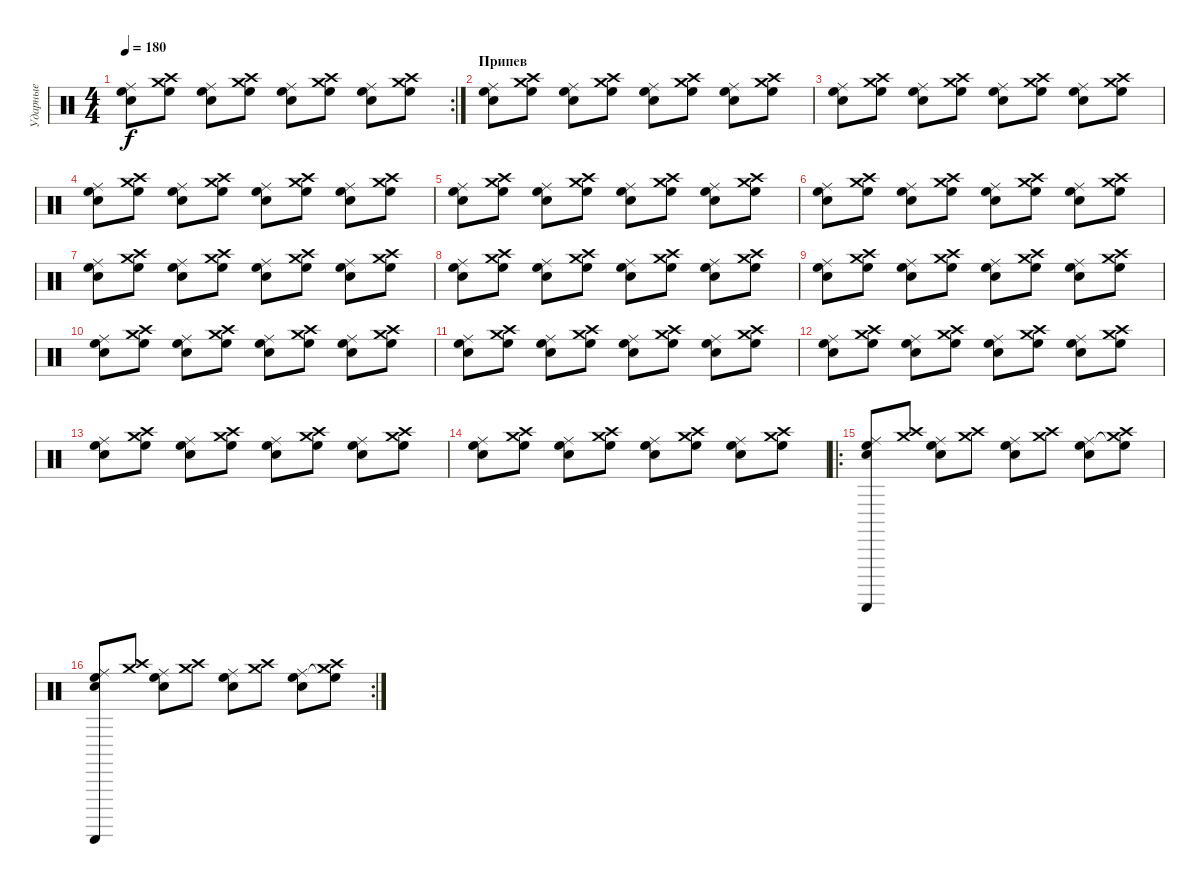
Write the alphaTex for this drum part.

\track ("Ударные" "Ударные") {instrument percussion}
\staff {score}
\articulation defaults
\rc 2
\ts (4 4)
\tempo 180
\clef neutral
\ks c
("High Floor Tom (hit)" "Ride (middle)" "Snare (hit) 2").8{dy f} ("High Floor Tom (hit)" "Crash high (hit)" "Crash medium (hit)").8 ("High Floor Tom (hit)" "Ride (middle)" "Snare (hit) 2").8 ("High Floor Tom (hit)" "Crash high (hit)" "Crash medium (hit)").8 ("High Floor Tom (hit)" "Ride (middle)" "Snare (hit) 2").8 ("High Floor Tom (hit)" "Crash high (hit)" "Crash medium (hit)").8 ("High Floor Tom (hit)" "Ride (middle)" "Snare (hit) 2").8 ("High Floor Tom (hit)" "Crash high (hit)" "Crash medium (hit)").8 |
\section ("" "Припев")
("High Floor Tom (hit)" "Ride (middle)" "Snare (hit) 2").8 ("High Floor Tom (hit)" "Crash high (hit)" "Crash medium (hit)").8 ("High Floor Tom (hit)" "Ride (middle)" "Snare (hit) 2").8 ("High Floor Tom (hit)" "Crash high (hit)" "Crash medium (hit)").8 ("High Floor Tom (hit)" "Ride (middle)" "Snare (hit) 2").8 ("High Floor Tom (hit)" "Crash high (hit)" "Crash medium (hit)").8 ("High Floor Tom (hit)" "Ride (middle)" "Snare (hit) 2").8 ("High Floor Tom (hit)" "Crash high (hit)" "Crash medium (hit)").8 |
("High Floor Tom (hit)" "Ride (middle)" "Snare (hit) 2").8 ("High Floor Tom (hit)" "Crash high (hit)" "Crash medium (hit)").8 ("High Floor Tom (hit)" "Ride (middle)" "Snare (hit) 2").8 ("High Floor Tom (hit)" "Crash high (hit)" "Crash medium (hit)").8 ("High Floor Tom (hit)" "Ride (middle)" "Snare (hit) 2").8 ("High Floor Tom (hit)" "Crash high (hit)" "Crash medium (hit)").8 ("High Floor Tom (hit)" "Ride (middle)" "Snare (hit) 2").8 ("High Floor Tom (hit)" "Crash high (hit)" "Crash medium (hit)").8 |
("High Floor Tom (hit)" "Ride (middle)" "Snare (hit) 2").8 ("High Floor Tom (hit)" "Crash high (hit)" "Crash medium (hit)").8 ("High Floor Tom (hit)" "Ride (middle)" "Snare (hit) 2").8 ("High Floor Tom (hit)" "Crash high (hit)" "Crash medium (hit)").8 ("High Floor Tom (hit)" "Ride (middle)" "Snare (hit) 2").8 ("High Floor Tom (hit)" "Crash high (hit)" "Crash medium (hit)").8 ("High Floor Tom (hit)" "Ride (middle)" "Snare (hit) 2").8 ("High Floor Tom (hit)" "Crash high (hit)" "Crash medium (hit)").8 |
("High Floor Tom (hit)" "Ride (middle)" "Snare (hit) 2").8 ("High Floor Tom (hit)" "Crash high (hit)" "Crash medium (hit)").8 ("High Floor Tom (hit)" "Ride (middle)" "Snare (hit) 2").8 ("High Floor Tom (hit)" "Crash high (hit)" "Crash medium (hit)").8 ("High Floor Tom (hit)" "Ride (middle)" "Snare (hit) 2").8 ("High Floor Tom (hit)" "Crash high (hit)" "Crash medium (hit)").8 ("High Floor Tom (hit)" "Ride (middle)" "Snare (hit) 2").8 ("High Floor Tom (hit)" "Crash high (hit)" "Crash medium (hit)").8 |
("High Floor Tom (hit)" "Ride (middle)" "Snare (hit) 2").8 ("High Floor Tom (hit)" "Crash high (hit)" "Crash medium (hit)").8 ("High Floor Tom (hit)" "Ride (middle)" "Snare (hit) 2").8 ("High Floor Tom (hit)" "Crash high (hit)" "Crash medium (hit)").8 ("High Floor Tom (hit)" "Ride (middle)" "Snare (hit) 2").8 ("High Floor Tom (hit)" "Crash high (hit)" "Crash medium (hit)").8 ("High Floor Tom (hit)" "Ride (middle)" "Snare (hit) 2").8 ("High Floor Tom (hit)" "Crash high (hit)" "Crash medium (hit)").8 |
("High Floor Tom (hit)" "Ride (middle)" "Snare (hit) 2").8 ("High Floor Tom (hit)" "Crash high (hit)" "Crash medium (hit)").8 ("High Floor Tom (hit)" "Ride (middle)" "Snare (hit) 2").8 ("High Floor Tom (hit)" "Crash high (hit)" "Crash medium (hit)").8 ("High Floor Tom (hit)" "Ride (middle)" "Snare (hit) 2").8 ("High Floor Tom (hit)" "Crash high (hit)" "Crash medium (hit)").8 ("High Floor Tom (hit)" "Ride (middle)" "Snare (hit) 2").8 ("High Floor Tom (hit)" "Crash high (hit)" "Crash medium (hit)").8 |
("High Floor Tom (hit)" "Ride (middle)" "Snare (hit) 2").8 ("High Floor Tom (hit)" "Crash high (hit)" "Crash medium (hit)").8 ("High Floor Tom (hit)" "Ride (middle)" "Snare (hit) 2").8 ("High Floor Tom (hit)" "Crash high (hit)" "Crash medium (hit)").8 ("High Floor Tom (hit)" "Ride (middle)" "Snare (hit) 2").8 ("High Floor Tom (hit)" "Crash high (hit)" "Crash medium (hit)").8 ("High Floor Tom (hit)" "Ride (middle)" "Snare (hit) 2").8 ("High Floor Tom (hit)" "Crash high (hit)" "Crash medium (hit)").8 |
("High Floor Tom (hit)" "Ride (middle)" "Snare (hit) 2").8 ("High Floor Tom (hit)" "Crash high (hit)" "Crash medium (hit)").8 ("High Floor Tom (hit)" "Ride (middle)" "Snare (hit) 2").8 ("High Floor Tom (hit)" "Crash high (hit)" "Crash medium (hit)").8 ("High Floor Tom (hit)" "Ride (middle)" "Snare (hit) 2").8 ("High Floor Tom (hit)" "Crash high (hit)" "Crash medium (hit)").8 ("High Floor Tom (hit)" "Ride (middle)" "Snare (hit) 2").8 ("High Floor Tom (hit)" "Crash high (hit)" "Crash medium (hit)").8 |
("High Floor Tom (hit)" "Ride (middle)" "Snare (hit) 2").8 ("High Floor Tom (hit)" "Crash high (hit)" "Crash medium (hit)").8 ("High Floor Tom (hit)" "Ride (middle)" "Snare (hit) 2").8 ("High Floor Tom (hit)" "Crash high (hit)" "Crash medium (hit)").8 ("High Floor Tom (hit)" "Ride (middle)" "Snare (hit) 2").8 ("High Floor Tom (hit)" "Crash high (hit)" "Crash medium (hit)").8 ("High Floor Tom (hit)" "Ride (middle)" "Snare (hit) 2").8 ("High Floor Tom (hit)" "Crash high (hit)" "Crash medium (hit)").8 |
("High Floor Tom (hit)" "Ride (middle)" "Snare (hit) 2").8 ("High Floor Tom (hit)" "Crash high (hit)" "Crash medium (hit)").8 ("High Floor Tom (hit)" "Ride (middle)" "Snare (hit) 2").8 ("High Floor Tom (hit)" "Crash high (hit)" "Crash medium (hit)").8 ("High Floor Tom (hit)" "Ride (middle)" "Snare (hit) 2").8 ("High Floor Tom (hit)" "Crash high (hit)" "Crash medium (hit)").8 ("High Floor Tom (hit)" "Ride (middle)" "Snare (hit) 2").8 ("High Floor Tom (hit)" "Crash high (hit)" "Crash medium (hit)").8 |
("High Floor Tom (hit)" "Ride (middle)" "Snare (hit) 2").8 ("High Floor Tom (hit)" "Crash high (hit)" "Crash medium (hit)").8 ("High Floor Tom (hit)" "Ride (middle)" "Snare (hit) 2").8 ("High Floor Tom (hit)" "Crash high (hit)" "Crash medium (hit)").8 ("High Floor Tom (hit)" "Ride (middle)" "Snare (hit) 2").8 ("High Floor Tom (hit)" "Crash high (hit)" "Crash medium (hit)").8 ("High Floor Tom (hit)" "Ride (middle)" "Snare (hit) 2").8 ("High Floor Tom (hit)" "Crash high (hit)" "Crash medium (hit)").8 |
("High Floor Tom (hit)" "Ride (middle)" "Snare (hit) 2").8 ("High Floor Tom (hit)" "Crash high (hit)" "Crash medium (hit)").8 ("High Floor Tom (hit)" "Ride (middle)" "Snare (hit) 2").8 ("High Floor Tom (hit)" "Crash high (hit)" "Crash medium (hit)").8 ("High Floor Tom (hit)" "Ride (middle)" "Snare (hit) 2").8 ("High Floor Tom (hit)" "Crash high (hit)" "Crash medium (hit)").8 ("High Floor Tom (hit)" "Ride (middle)" "Snare (hit) 2").8 ("High Floor Tom (hit)" "Crash high (hit)" "Crash medium (hit)").8 |
("High Floor Tom (hit)" "Ride (middle)" "Snare (hit) 2").8 ("High Floor Tom (hit)" "Crash high (hit)" "Crash medium (hit)").8 ("High Floor Tom (hit)" "Ride (middle)" "Snare (hit) 2").8 ("High Floor Tom (hit)" "Crash high (hit)" "Crash medium (hit)").8 ("High Floor Tom (hit)" "Ride (middle)" "Snare (hit) 2").8 ("High Floor Tom (hit)" "Crash high (hit)" "Crash medium (hit)").8 ("High Floor Tom (hit)" "Ride (middle)" "Snare (hit) 2").8 ("High Floor Tom (hit)" "Crash high (hit)" "Crash medium (hit)").8 |
\ro
("Guiro (scrap-return)" "High Floor Tom (hit)" "Ride (middle)" "Snare (hit) 2").8 ("Crash high (hit)" "Crash medium (hit)").8 ("High Floor Tom (hit)" "Ride (middle)" "Snare (hit) 2").8 ("Crash high (hit)" "Crash medium (hit)").8 ("High Floor Tom (hit)" "Ride (middle)" "Snare (hit) 2").8 ("Crash high (hit)" "Crash medium (hit)").8 ("High Floor Tom (hit)" "Ride (middle)" "Snare (hit) 2").8 ("High Floor Tom (hit)"{t} "Crash high (hit)" "Crash medium (hit)").8 |
\rc 2
("Guiro (scrap-return)" "High Floor Tom (hit)" "Ride (middle)" "Snare (hit) 2").8 ("Crash high (hit)" "Crash medium (hit)").8 ("High Floor Tom (hit)" "Ride (middle)" "Snare (hit) 2").8 ("Crash high (hit)" "Crash medium (hit)").8 ("High Floor Tom (hit)" "Ride (middle)" "Snare (hit) 2").8 ("Crash high (hit)" "Crash medium (hit)").8 ("High Floor Tom (hit)" "Ride (middle)" "Snare (hit) 2").8 ("High Floor Tom (hit)"{t} "Crash high (hit)" "Crash medium (hit)").8
